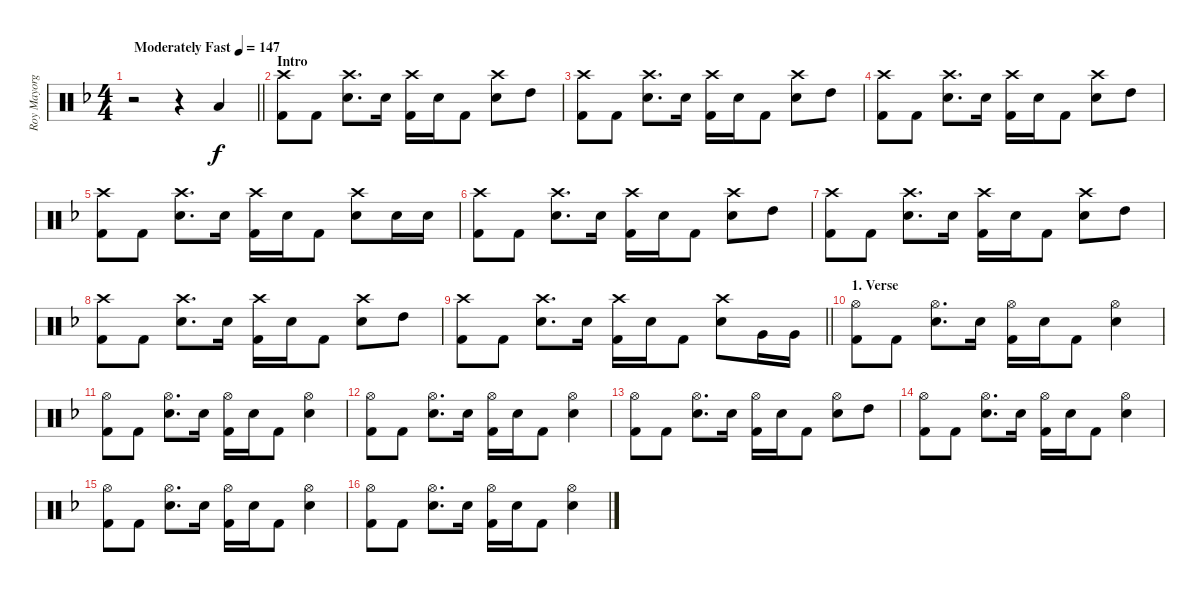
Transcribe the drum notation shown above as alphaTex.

\track ("Roy Mayorga (Drums)" "Roy Mayorg") {instrument percussion}
\staff {score}
\articulation defaults
\ts (4 4)
\tempo (147 "Moderately Fast")
\clef neutral
\barLineRight lightlight
\ks f
r.2{dy f} r.4 "Low Tom (hit)".4 |
\section ("" "Intro")
("Crash high (hit)" "Kick (hit) 2").8 "Kick (hit) 2".8 ("Crash high (hit)" "Snare (hit) 2").8{d} "Snare (hit) 2".16 ("Crash high (hit)" "Kick (hit) 2").16 "Snare (hit) 2".16 "Kick (hit) 2".8 ("Crash high (hit)" "Snare (hit) 2").8 "High Tom (hit)".8 |
("Crash high (hit)" "Kick (hit) 2").8 "Kick (hit) 2".8 ("Crash high (hit)" "Snare (hit) 2").8{d} "Snare (hit) 2".16 ("Crash high (hit)" "Kick (hit) 2").16 "Snare (hit) 2".16 "Kick (hit) 2".8 ("Crash high (hit)" "Snare (hit) 2").8 "High Tom (hit)".8 |
("Crash high (hit)" "Kick (hit) 2").8 "Kick (hit) 2".8 ("Crash high (hit)" "Snare (hit) 2").8{d} "Snare (hit) 2".16 ("Crash high (hit)" "Kick (hit) 2").16 "Snare (hit) 2".16 "Kick (hit) 2".8 ("Crash high (hit)" "Snare (hit) 2").8 "High Tom (hit)".8 |
("Crash high (hit)" "Kick (hit) 2").8 "Kick (hit) 2".8 ("Crash high (hit)" "Snare (hit) 2").8{d} "Snare (hit) 2".16 ("Crash high (hit)" "Kick (hit) 2").16 "Snare (hit) 2".16 "Kick (hit) 2".8 ("Crash high (hit)" "Snare (hit) 2").8 "Snare (hit) 2".16 "Snare (hit) 2".16 |
("Crash high (hit)" "Kick (hit) 2").8 "Kick (hit) 2".8 ("Crash high (hit)" "Snare (hit) 2").8{d} "Snare (hit) 2".16 ("Crash high (hit)" "Kick (hit) 2").16 "Snare (hit) 2".16 "Kick (hit) 2".8 ("Crash high (hit)" "Snare (hit) 2").8 "High Tom (hit)".8 |
("Crash high (hit)" "Kick (hit) 2").8 "Kick (hit) 2".8 ("Crash high (hit)" "Snare (hit) 2").8{d} "Snare (hit) 2".16 ("Crash high (hit)" "Kick (hit) 2").16 "Snare (hit) 2".16 "Kick (hit) 2".8 ("Crash high (hit)" "Snare (hit) 2").8 "High Tom (hit)".8 |
("Crash high (hit)" "Kick (hit) 2").8 "Kick (hit) 2".8 ("Crash high (hit)" "Snare (hit) 2").8{d} "Snare (hit) 2".16 ("Crash high (hit)" "Kick (hit) 2").16 "Snare (hit) 2".16 "Kick (hit) 2".8 ("Crash high (hit)" "Snare (hit) 2").8 "High Tom (hit)".8 |
\barLineRight lightlight
("Crash high (hit)" "Kick (hit) 2").8 "Kick (hit) 2".8 ("Crash high (hit)" "Snare (hit) 2").8{d} "Snare (hit) 2".16 ("Crash high (hit)" "Kick (hit) 2").16 "Snare (hit) 2".16 "Kick (hit) 2".8 ("Crash high (hit)" "Snare (hit) 2").8 "Very Low Tom (hit)".16 "Very Low Tom (hit)".16 |
\section ("" "1. Verse")
("Hi-Hat (open)" "Kick (hit) 2").8 "Kick (hit) 2".8 ("Hi-Hat (open)" "Snare (hit) 2").8{d} "Snare (hit) 2".16 ("Hi-Hat (open)" "Kick (hit) 2").16 "Snare (hit) 2".16 "Kick (hit) 2".8 ("Hi-Hat (open)" "Snare (hit) 2").4 |
("Hi-Hat (open)" "Kick (hit) 2").8 "Kick (hit) 2".8 ("Hi-Hat (open)" "Snare (hit) 2").8{d} "Snare (hit) 2".16 ("Hi-Hat (open)" "Kick (hit) 2").16 "Snare (hit) 2".16 "Kick (hit) 2".8 ("Hi-Hat (open)" "Snare (hit) 2").4 |
("Hi-Hat (open)" "Kick (hit) 2").8 "Kick (hit) 2".8 ("Hi-Hat (open)" "Snare (hit) 2").8{d} "Snare (hit) 2".16 ("Hi-Hat (open)" "Kick (hit) 2").16 "Snare (hit) 2".16 "Kick (hit) 2".8 ("Hi-Hat (open)" "Snare (hit) 2").4 |
("Hi-Hat (open)" "Kick (hit) 2").8 "Kick (hit) 2".8 ("Hi-Hat (open)" "Snare (hit) 2").8{d} "Snare (hit) 2".16 ("Hi-Hat (open)" "Kick (hit) 2").16 "Snare (hit) 2".16 "Kick (hit) 2".8 ("Hi-Hat (open)" "Snare (hit) 2").8 "High Tom (hit)".8 |
("Hi-Hat (open)" "Kick (hit) 2").8 "Kick (hit) 2".8 ("Hi-Hat (open)" "Snare (hit) 2").8{d} "Snare (hit) 2".16 ("Hi-Hat (open)" "Kick (hit) 2").16 "Snare (hit) 2".16 "Kick (hit) 2".8 ("Hi-Hat (open)" "Snare (hit) 2").4 |
("Hi-Hat (open)" "Kick (hit) 2").8 "Kick (hit) 2".8 ("Hi-Hat (open)" "Snare (hit) 2").8{d} "Snare (hit) 2".16 ("Hi-Hat (open)" "Kick (hit) 2").16 "Snare (hit) 2".16 "Kick (hit) 2".8 ("Hi-Hat (open)" "Snare (hit) 2").4 |
("Hi-Hat (open)" "Kick (hit) 2").8 "Kick (hit) 2".8 ("Hi-Hat (open)" "Snare (hit) 2").8{d} "Snare (hit) 2".16 ("Hi-Hat (open)" "Kick (hit) 2").16 "Snare (hit) 2".16 "Kick (hit) 2".8 ("Hi-Hat (open)" "Snare (hit) 2").4
